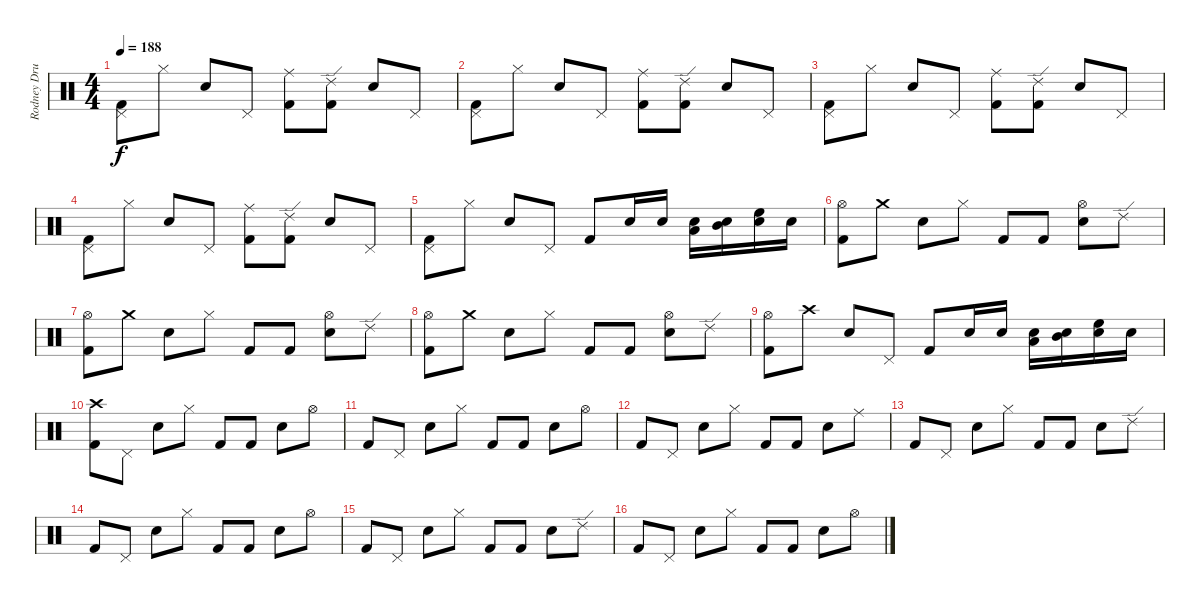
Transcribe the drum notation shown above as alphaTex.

\track ("Rodney Drums" "Rodney Dru") {instrument percussion}
\staff {score}
\articulation defaults
\ts (4 4)
\tempo 188
\clef neutral
\ks c
("Pedal Hi-Hat (hit)" "Kick (hit) 2").8{dy f} "Hi-Hat (closed)".8 "Electric Snare (hit)".8 "Pedal Hi-Hat (hit)".8 ("Ride (middle)" "Kick (hit) 2").8 ("Ride (edge) 2" "Kick (hit) 2").8 "Electric Snare (hit)".8 "Pedal Hi-Hat (hit)".8 |
("Pedal Hi-Hat (hit)" "Kick (hit) 2").8 "Hi-Hat (closed)".8 "Electric Snare (hit)".8 "Pedal Hi-Hat (hit)".8 ("Ride (middle)" "Kick (hit) 2").8 ("Ride (edge) 2" "Kick (hit) 2").8 "Electric Snare (hit)".8 "Pedal Hi-Hat (hit)".8 |
("Pedal Hi-Hat (hit)" "Kick (hit) 2").8 "Hi-Hat (closed)".8 "Electric Snare (hit)".8 "Pedal Hi-Hat (hit)".8 ("Ride (middle)" "Kick (hit) 2").8 ("Ride (edge) 2" "Kick (hit) 2").8 "Electric Snare (hit)".8 "Pedal Hi-Hat (hit)".8 |
("Pedal Hi-Hat (hit)" "Kick (hit) 2").8 "Hi-Hat (closed)".8 "Electric Snare (hit)".8 "Pedal Hi-Hat (hit)".8 ("Ride (middle)" "Kick (hit) 2").8 ("Ride (edge) 2" "Kick (hit) 2").8 "Electric Snare (hit)".8 "Pedal Hi-Hat (hit)".8 |
("Pedal Hi-Hat (hit)" "Kick (hit) 2").8 "Hi-Hat (closed)".8 "Electric Snare (hit)".8 "Pedal Hi-Hat (hit)".8 "Kick (hit) 2".8 "Electric Snare (hit)".16 "Electric Snare (hit)".16 ("Electric Snare (hit)" "Low Tom (hit)").16 ("Mid Tom (hit)" "Electric Snare (hit)").16 ("High Floor Tom (hit)" "Electric Snare (hit)").16 "Electric Snare (hit)".16 |
("Hi-Hat (open)" "Kick (hit) 2").8 "Crash medium (hit)".8 "Electric Snare (hit)".8 "Hi-Hat (closed)".8 "Kick (hit) 2".8 "Kick (hit) 2".8 ("Hi-Hat (open)" "Electric Snare (hit)").8 "Ride (edge) 2".8 |
("Hi-Hat (open)" "Kick (hit) 2").8 "Crash medium (hit)".8 "Electric Snare (hit)".8 "Hi-Hat (closed)".8 "Kick (hit) 2".8 "Kick (hit) 2".8 ("Hi-Hat (open)" "Electric Snare (hit)").8 "Ride (edge) 2".8 |
("Hi-Hat (open)" "Kick (hit) 2").8 "Crash medium (hit)".8 "Electric Snare (hit)".8 "Hi-Hat (closed)".8 "Kick (hit) 2".8 "Kick (hit) 2".8 ("Hi-Hat (open)" "Electric Snare (hit)").8 "Ride (edge) 2".8 |
("Hi-Hat (open)" "Kick (hit) 2").8 "Crash high (hit)".8 "Electric Snare (hit)".8 "Pedal Hi-Hat (hit)".8 "Kick (hit) 2".8 "Electric Snare (hit)".16 "Electric Snare (hit)".16 ("Electric Snare (hit)" "Low Tom (hit)").16 ("Mid Tom (hit)" "Electric Snare (hit)").16 ("High Floor Tom (hit)" "Electric Snare (hit)").16 "Electric Snare (hit)".16 |
("Crash high (hit)" "Kick (hit) 2").8 "Pedal Hi-Hat (hit)".8 "Electric Snare (hit)".8 "Hi-Hat (closed)".8 "Kick (hit) 2".8 "Kick (hit) 2".8 "Electric Snare (hit)".8 "Hi-Hat (open)".8 |
"Kick (hit) 2".8 "Pedal Hi-Hat (hit)".8 "Electric Snare (hit)".8 "Hi-Hat (closed)".8 "Kick (hit) 2".8 "Kick (hit) 2".8 "Electric Snare (hit)".8 "Hi-Hat (open)".8 |
"Kick (hit) 2".8 "Pedal Hi-Hat (hit)".8 "Electric Snare (hit)".8 "Hi-Hat (closed)".8 "Kick (hit) 2".8 "Kick (hit) 2".8 "Electric Snare (hit)".8 "Ride (middle)".8 |
"Kick (hit) 2".8 "Pedal Hi-Hat (hit)".8 "Electric Snare (hit)".8 "Hi-Hat (closed)".8 "Kick (hit) 2".8 "Kick (hit) 2".8 "Electric Snare (hit)".8 "Ride (edge) 2".8 |
"Kick (hit) 2".8 "Pedal Hi-Hat (hit)".8 "Electric Snare (hit)".8 "Hi-Hat (closed)".8 "Kick (hit) 2".8 "Kick (hit) 2".8 "Electric Snare (hit)".8 "Hi-Hat (open)".8 |
"Kick (hit) 2".8 "Pedal Hi-Hat (hit)".8 "Electric Snare (hit)".8 "Hi-Hat (closed)".8 "Kick (hit) 2".8 "Kick (hit) 2".8 "Electric Snare (hit)".8 "Ride (edge) 2".8 |
"Kick (hit) 2".8 "Pedal Hi-Hat (hit)".8 "Electric Snare (hit)".8 "Hi-Hat (closed)".8 "Kick (hit) 2".8 "Kick (hit) 2".8 "Electric Snare (hit)".8 "Hi-Hat (open)".8
